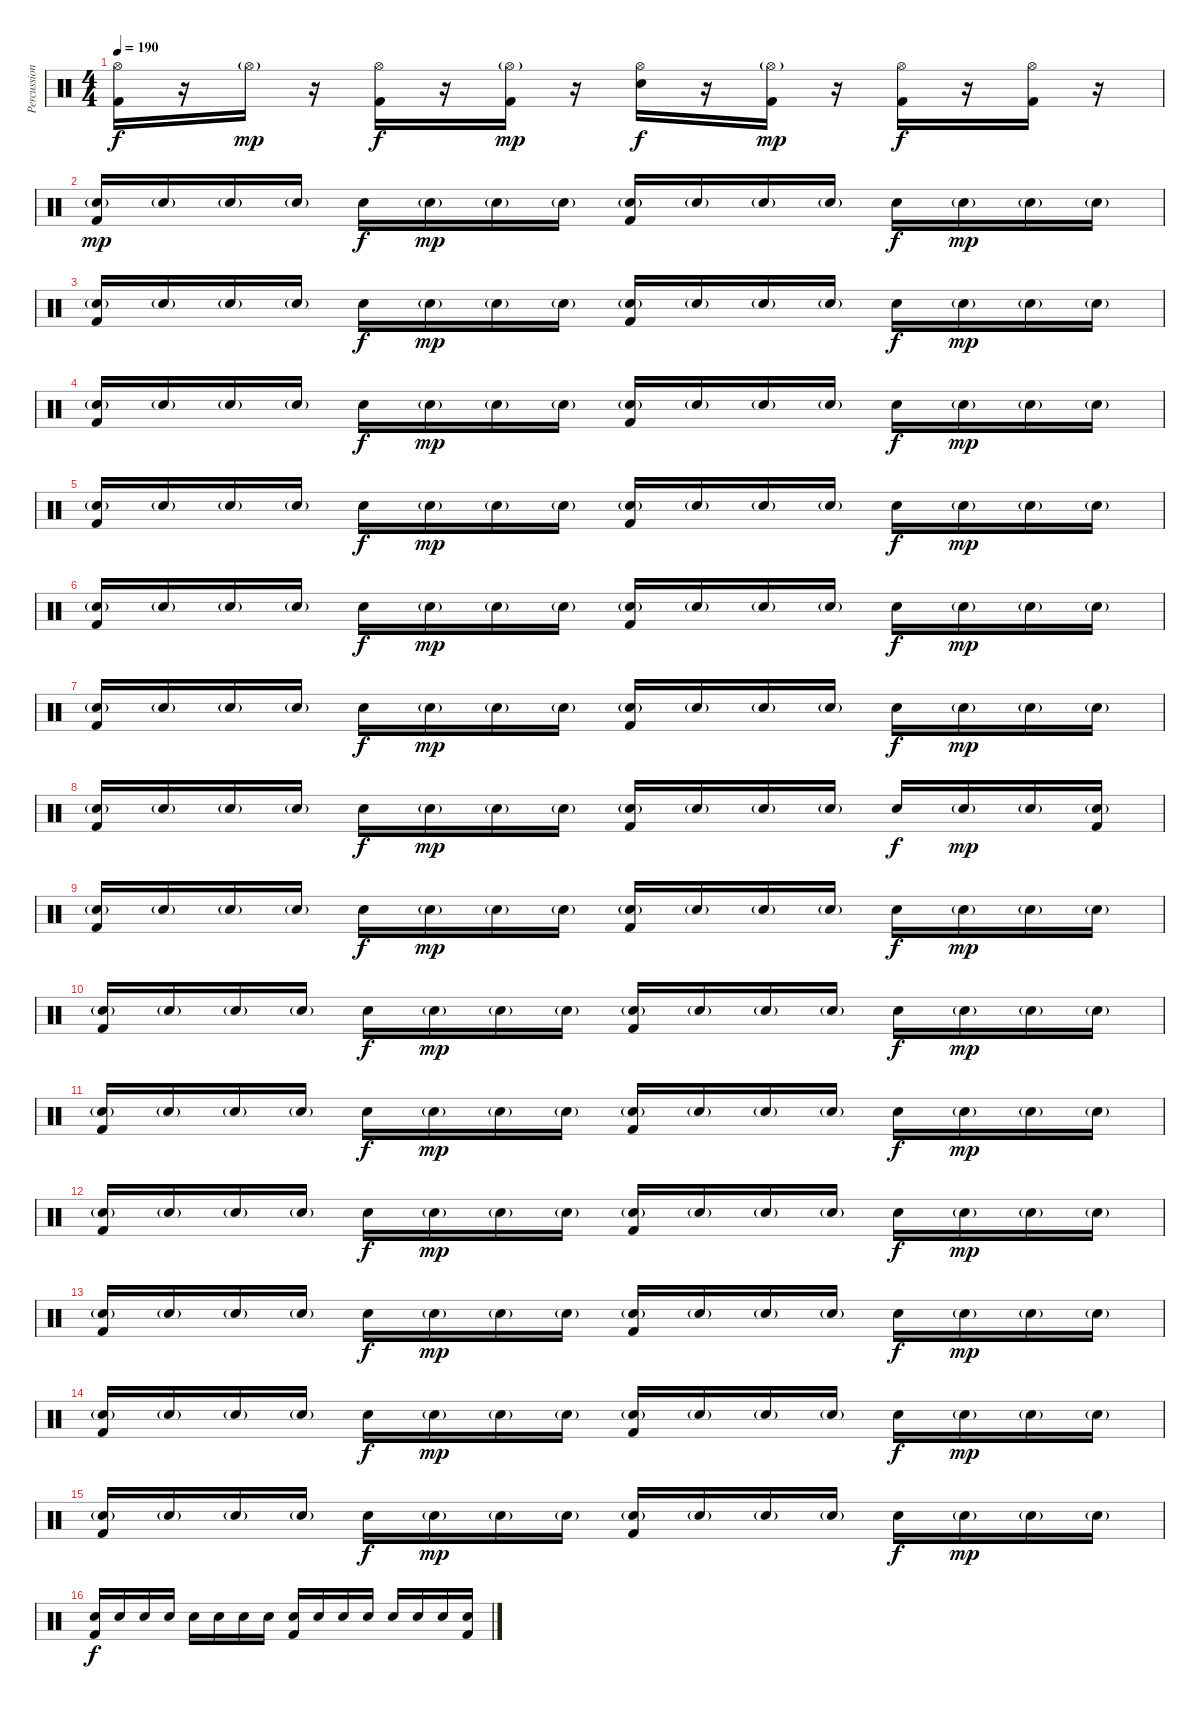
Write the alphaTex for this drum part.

\track ("Percussion" "Percussion") {instrument percussion}
\staff {score}
\articulation defaults
\ts (4 4)
\tempo 190
\clef neutral
\ks c
("Hi-Hat (open)" "Kick (hit) 2").16{dy f} r.16 "Hi-Hat (open)"{g}.16{dy mp} r.16 ("Hi-Hat (open)" "Kick (hit) 2").16{dy f} r.16 ("Hi-Hat (open)"{g} "Kick (hit) 2").16{dy mp} r.16 ("Hi-Hat (open)" "Electric Snare (hit)").16{dy f} r.16 ("Hi-Hat (open)"{g} "Kick (hit) 2").16{dy mp} r.16 ("Hi-Hat (open)" "Kick (hit) 2").16{dy f} r.16 ("Hi-Hat (open)" "Kick (hit) 2").16 r.16 |
("Electric Snare (hit)"{g} "Kick (hit) 2").16{dy mp} "Electric Snare (hit)"{g}.16 "Electric Snare (hit)"{g}.16 "Electric Snare (hit)"{g}.16 "Electric Snare (hit)".16{dy f} "Electric Snare (hit)"{g}.16{dy mp} "Electric Snare (hit)"{g}.16 "Electric Snare (hit)"{g}.16 ("Electric Snare (hit)"{g} "Kick (hit) 2").16 "Electric Snare (hit)"{g}.16 "Electric Snare (hit)"{g}.16 "Electric Snare (hit)"{g}.16 "Electric Snare (hit)".16{dy f} "Electric Snare (hit)"{g}.16{dy mp} "Electric Snare (hit)"{g}.16 "Electric Snare (hit)"{g}.16 |
("Electric Snare (hit)"{g} "Kick (hit) 2").16 "Electric Snare (hit)"{g}.16 "Electric Snare (hit)"{g}.16 "Electric Snare (hit)"{g}.16 "Electric Snare (hit)".16{dy f} "Electric Snare (hit)"{g}.16{dy mp} "Electric Snare (hit)"{g}.16 "Electric Snare (hit)"{g}.16 ("Electric Snare (hit)"{g} "Kick (hit) 2").16 "Electric Snare (hit)"{g}.16 "Electric Snare (hit)"{g}.16 "Electric Snare (hit)"{g}.16 "Electric Snare (hit)".16{dy f} "Electric Snare (hit)"{g}.16{dy mp} "Electric Snare (hit)"{g}.16 "Electric Snare (hit)"{g}.16 |
("Electric Snare (hit)"{g} "Kick (hit) 2").16 "Electric Snare (hit)"{g}.16 "Electric Snare (hit)"{g}.16 "Electric Snare (hit)"{g}.16 "Electric Snare (hit)".16{dy f} "Electric Snare (hit)"{g}.16{dy mp} "Electric Snare (hit)"{g}.16 "Electric Snare (hit)"{g}.16 ("Electric Snare (hit)"{g} "Kick (hit) 2").16 "Electric Snare (hit)"{g}.16 "Electric Snare (hit)"{g}.16 "Electric Snare (hit)"{g}.16 "Electric Snare (hit)".16{dy f} "Electric Snare (hit)"{g}.16{dy mp} "Electric Snare (hit)"{g}.16 "Electric Snare (hit)"{g}.16 |
("Electric Snare (hit)"{g} "Kick (hit) 2").16 "Electric Snare (hit)"{g}.16 "Electric Snare (hit)"{g}.16 "Electric Snare (hit)"{g}.16 "Electric Snare (hit)".16{dy f} "Electric Snare (hit)"{g}.16{dy mp} "Electric Snare (hit)"{g}.16 "Electric Snare (hit)"{g}.16 ("Electric Snare (hit)"{g} "Kick (hit) 2").16 "Electric Snare (hit)"{g}.16 "Electric Snare (hit)"{g}.16 "Electric Snare (hit)"{g}.16 "Electric Snare (hit)".16{dy f} "Electric Snare (hit)"{g}.16{dy mp} "Electric Snare (hit)"{g}.16 "Electric Snare (hit)"{g}.16 |
("Electric Snare (hit)"{g} "Kick (hit) 2").16 "Electric Snare (hit)"{g}.16 "Electric Snare (hit)"{g}.16 "Electric Snare (hit)"{g}.16 "Electric Snare (hit)".16{dy f} "Electric Snare (hit)"{g}.16{dy mp} "Electric Snare (hit)"{g}.16 "Electric Snare (hit)"{g}.16 ("Electric Snare (hit)"{g} "Kick (hit) 2").16 "Electric Snare (hit)"{g}.16 "Electric Snare (hit)"{g}.16 "Electric Snare (hit)"{g}.16 "Electric Snare (hit)".16{dy f} "Electric Snare (hit)"{g}.16{dy mp} "Electric Snare (hit)"{g}.16 "Electric Snare (hit)"{g}.16 |
("Electric Snare (hit)"{g} "Kick (hit) 2").16 "Electric Snare (hit)"{g}.16 "Electric Snare (hit)"{g}.16 "Electric Snare (hit)"{g}.16 "Electric Snare (hit)".16{dy f} "Electric Snare (hit)"{g}.16{dy mp} "Electric Snare (hit)"{g}.16 "Electric Snare (hit)"{g}.16 ("Electric Snare (hit)"{g} "Kick (hit) 2").16 "Electric Snare (hit)"{g}.16 "Electric Snare (hit)"{g}.16 "Electric Snare (hit)"{g}.16 "Electric Snare (hit)".16{dy f} "Electric Snare (hit)"{g}.16{dy mp} "Electric Snare (hit)"{g}.16 "Electric Snare (hit)"{g}.16 |
("Electric Snare (hit)"{g} "Kick (hit) 2").16 "Electric Snare (hit)"{g}.16 "Electric Snare (hit)"{g}.16 "Electric Snare (hit)"{g}.16 "Electric Snare (hit)".16{dy f} "Electric Snare (hit)"{g}.16{dy mp} "Electric Snare (hit)"{g}.16 "Electric Snare (hit)"{g}.16 ("Electric Snare (hit)"{g} "Kick (hit) 2").16 "Electric Snare (hit)"{g}.16 "Electric Snare (hit)"{g}.16 "Electric Snare (hit)"{g}.16 "Electric Snare (hit)".16{dy f} "Electric Snare (hit)"{g}.16{dy mp} "Electric Snare (hit)"{g}.16 ("Electric Snare (hit)"{g} "Kick (hit) 2").16 |
("Electric Snare (hit)"{g} "Kick (hit) 2").16 "Electric Snare (hit)"{g}.16 "Electric Snare (hit)"{g}.16 "Electric Snare (hit)"{g}.16 "Electric Snare (hit)".16{dy f} "Electric Snare (hit)"{g}.16{dy mp} "Electric Snare (hit)"{g}.16 "Electric Snare (hit)"{g}.16 ("Electric Snare (hit)"{g} "Kick (hit) 2").16 "Electric Snare (hit)"{g}.16 "Electric Snare (hit)"{g}.16 "Electric Snare (hit)"{g}.16 "Electric Snare (hit)".16{dy f} "Electric Snare (hit)"{g}.16{dy mp} "Electric Snare (hit)"{g}.16 "Electric Snare (hit)"{g}.16 |
("Electric Snare (hit)"{g} "Kick (hit) 2").16 "Electric Snare (hit)"{g}.16 "Electric Snare (hit)"{g}.16 "Electric Snare (hit)"{g}.16 "Electric Snare (hit)".16{dy f} "Electric Snare (hit)"{g}.16{dy mp} "Electric Snare (hit)"{g}.16 "Electric Snare (hit)"{g}.16 ("Electric Snare (hit)"{g} "Kick (hit) 2").16 "Electric Snare (hit)"{g}.16 "Electric Snare (hit)"{g}.16 "Electric Snare (hit)"{g}.16 "Electric Snare (hit)".16{dy f} "Electric Snare (hit)"{g}.16{dy mp} "Electric Snare (hit)"{g}.16 "Electric Snare (hit)"{g}.16 |
("Electric Snare (hit)"{g} "Kick (hit) 2").16 "Electric Snare (hit)"{g}.16 "Electric Snare (hit)"{g}.16 "Electric Snare (hit)"{g}.16 "Electric Snare (hit)".16{dy f} "Electric Snare (hit)"{g}.16{dy mp} "Electric Snare (hit)"{g}.16 "Electric Snare (hit)"{g}.16 ("Electric Snare (hit)"{g} "Kick (hit) 2").16 "Electric Snare (hit)"{g}.16 "Electric Snare (hit)"{g}.16 "Electric Snare (hit)"{g}.16 "Electric Snare (hit)".16{dy f} "Electric Snare (hit)"{g}.16{dy mp} "Electric Snare (hit)"{g}.16 "Electric Snare (hit)"{g}.16 |
("Electric Snare (hit)"{g} "Kick (hit) 2").16 "Electric Snare (hit)"{g}.16 "Electric Snare (hit)"{g}.16 "Electric Snare (hit)"{g}.16 "Electric Snare (hit)".16{dy f} "Electric Snare (hit)"{g}.16{dy mp} "Electric Snare (hit)"{g}.16 "Electric Snare (hit)"{g}.16 ("Electric Snare (hit)"{g} "Kick (hit) 2").16 "Electric Snare (hit)"{g}.16 "Electric Snare (hit)"{g}.16 "Electric Snare (hit)"{g}.16 "Electric Snare (hit)".16{dy f} "Electric Snare (hit)"{g}.16{dy mp} "Electric Snare (hit)"{g}.16 "Electric Snare (hit)"{g}.16 |
("Electric Snare (hit)"{g} "Kick (hit) 2").16 "Electric Snare (hit)"{g}.16 "Electric Snare (hit)"{g}.16 "Electric Snare (hit)"{g}.16 "Electric Snare (hit)".16{dy f} "Electric Snare (hit)"{g}.16{dy mp} "Electric Snare (hit)"{g}.16 "Electric Snare (hit)"{g}.16 ("Electric Snare (hit)"{g} "Kick (hit) 2").16 "Electric Snare (hit)"{g}.16 "Electric Snare (hit)"{g}.16 "Electric Snare (hit)"{g}.16 "Electric Snare (hit)".16{dy f} "Electric Snare (hit)"{g}.16{dy mp} "Electric Snare (hit)"{g}.16 "Electric Snare (hit)"{g}.16 |
("Electric Snare (hit)"{g} "Kick (hit) 2").16 "Electric Snare (hit)"{g}.16 "Electric Snare (hit)"{g}.16 "Electric Snare (hit)"{g}.16 "Electric Snare (hit)".16{dy f} "Electric Snare (hit)"{g}.16{dy mp} "Electric Snare (hit)"{g}.16 "Electric Snare (hit)"{g}.16 ("Electric Snare (hit)"{g} "Kick (hit) 2").16 "Electric Snare (hit)"{g}.16 "Electric Snare (hit)"{g}.16 "Electric Snare (hit)"{g}.16 "Electric Snare (hit)".16{dy f} "Electric Snare (hit)"{g}.16{dy mp} "Electric Snare (hit)"{g}.16 "Electric Snare (hit)"{g}.16 |
("Electric Snare (hit)"{g} "Kick (hit) 2").16 "Electric Snare (hit)"{g}.16 "Electric Snare (hit)"{g}.16 "Electric Snare (hit)"{g}.16 "Electric Snare (hit)".16{dy f} "Electric Snare (hit)"{g}.16{dy mp} "Electric Snare (hit)"{g}.16 "Electric Snare (hit)"{g}.16 ("Electric Snare (hit)"{g} "Kick (hit) 2").16 "Electric Snare (hit)"{g}.16 "Electric Snare (hit)"{g}.16 "Electric Snare (hit)"{g}.16 "Electric Snare (hit)".16{dy f} "Electric Snare (hit)"{g}.16{dy mp} "Electric Snare (hit)"{g}.16 "Electric Snare (hit)"{g}.16 |
("Electric Snare (hit)" "Kick (hit) 2").16{dy f} "Electric Snare (hit)".16 "Electric Snare (hit)".16 "Electric Snare (hit)".16 "Electric Snare (hit)".16 "Electric Snare (hit)".16 "Electric Snare (hit)".16 "Electric Snare (hit)".16 ("Electric Snare (hit)" "Kick (hit) 2").16 "Electric Snare (hit)".16 "Electric Snare (hit)".16 "Electric Snare (hit)".16 "Electric Snare (hit)".16 "Electric Snare (hit)".16 "Electric Snare (hit)".16 ("Electric Snare (hit)" "Kick (hit) 2").16
